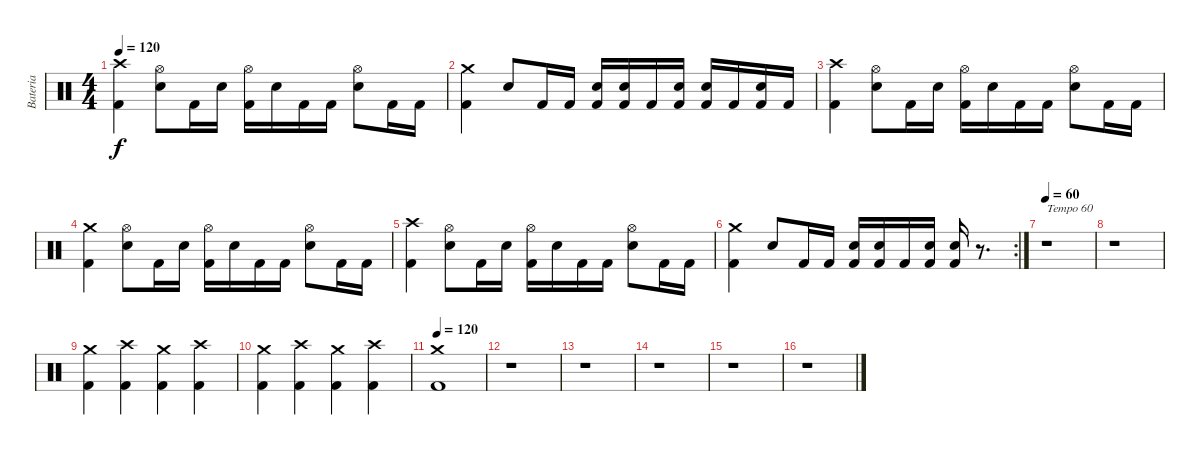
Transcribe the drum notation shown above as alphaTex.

\track ("Bateria" "Bateria") {instrument percussion}
\staff {score}
\articulation defaults
\ts (4 4)
\tempo 120
\clef neutral
\ks c
("Crash high (hit)" "Kick (hit) 2").4{dy f} ("Hi-Hat (open)" "Snare (hit) 2").8 "Kick (hit) 2".16 "Snare (hit) 2".16 ("Hi-Hat (open)" "Kick (hit) 2").16 "Snare (hit) 2".16 "Kick (hit) 2".16 "Kick (hit) 2".16 ("Hi-Hat (open)" "Snare (hit) 2").8 "Kick (hit) 2".16 "Kick (hit) 2".16 |
("Crash medium (hit)" "Kick (hit) 2").4 "Snare (hit) 2".8 "Kick (hit) 2".16 "Kick (hit) 2".16 ("Snare (hit) 2" "Kick (hit) 2").16 ("Snare (hit) 2" "Kick (hit) 2").16 "Kick (hit) 2".16 ("Snare (hit) 2" "Kick (hit) 2").16 ("Snare (hit) 2" "Kick (hit) 2").16 "Kick (hit) 2".16 ("Snare (hit) 2" "Kick (hit) 2").16 "Kick (hit) 2".16 |
("Crash high (hit)" "Kick (hit) 2").4 ("Hi-Hat (open)" "Snare (hit) 2").8 "Kick (hit) 2".16 "Snare (hit) 2".16 ("Hi-Hat (open)" "Kick (hit) 2").16 "Snare (hit) 2".16 "Kick (hit) 2".16 "Kick (hit) 2".16 ("Hi-Hat (open)" "Snare (hit) 2").8 "Kick (hit) 2".16 "Kick (hit) 2".16 |
("Crash medium (hit)" "Kick (hit) 2").4 ("Hi-Hat (open)" "Snare (hit) 2").8 "Kick (hit) 2".16 "Snare (hit) 2".16 ("Hi-Hat (open)" "Kick (hit) 2").16 "Snare (hit) 2".16 "Kick (hit) 2".16 "Kick (hit) 2".16 ("Hi-Hat (open)" "Snare (hit) 2").8 "Kick (hit) 2".16 "Kick (hit) 2".16 |
("Crash high (hit)" "Kick (hit) 2").4 ("Hi-Hat (open)" "Snare (hit) 2").8 "Kick (hit) 2".16 "Snare (hit) 2".16 ("Hi-Hat (open)" "Kick (hit) 2").16 "Snare (hit) 2".16 "Kick (hit) 2".16 "Kick (hit) 2".16 ("Hi-Hat (open)" "Snare (hit) 2").8 "Kick (hit) 2".16 "Kick (hit) 2".16 |
\rc 2
("Crash medium (hit)" "Kick (hit) 2").4 "Snare (hit) 2".8 "Kick (hit) 2".16 "Kick (hit) 2".16 ("Snare (hit) 2" "Kick (hit) 2").16 ("Snare (hit) 2" "Kick (hit) 2").16 "Kick (hit) 2".16 ("Snare (hit) 2" "Kick (hit) 2").16 ("Snare (hit) 2" "Kick (hit) 2").16 r.8{d} |
\tempo 60
r.1{txt "Tempo 60"} |
r.1 |
("Crash medium (hit)" "Kick (hit) 2").4 ("Crash high (hit)" "Kick (hit) 2").4 ("Crash medium (hit)" "Kick (hit) 2").4 ("Crash high (hit)" "Kick (hit) 2").4 |
("Crash medium (hit)" "Kick (hit) 2").4 ("Crash high (hit)" "Kick (hit) 2").4 ("Crash medium (hit)" "Kick (hit) 2").4 ("Crash high (hit)" "Kick (hit) 2").4 |
\tempo 120
("Crash medium (hit)" "Kick (hit) 2").1 |
r.1 |
r.1 |
r.1 |
r.1 |
r.1
